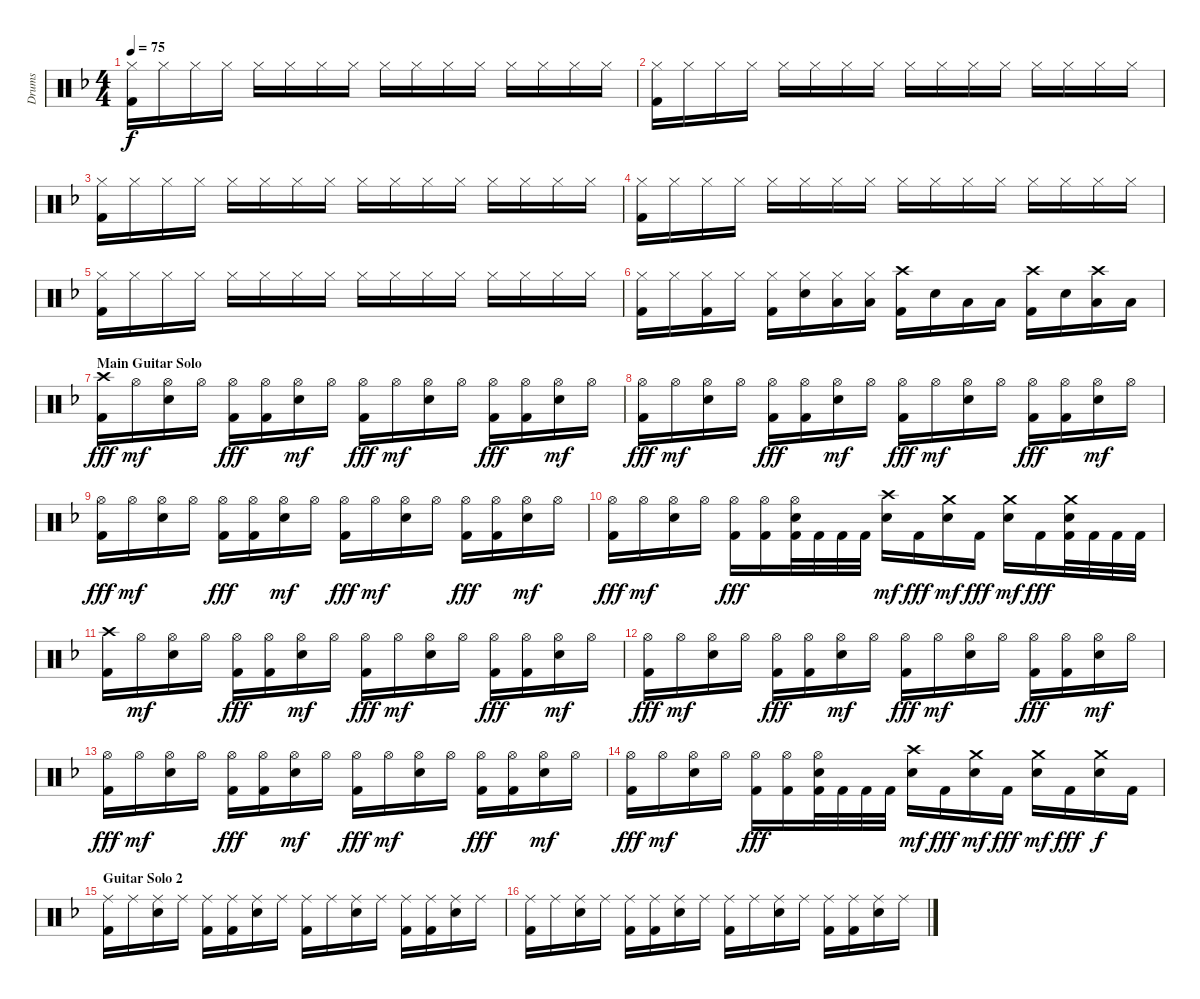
\track ("Drums" "Drums") {instrument percussion}
\staff {score}
\articulation defaults
\ts (4 4)
\tempo 75
\clef neutral
\ks dminor
("Hi-Hat (closed)" "Kick (hit) 2").16{dy f} "Hi-Hat (closed)".16 "Hi-Hat (closed)".16 "Hi-Hat (closed)".16 "Hi-Hat (closed)".16 "Hi-Hat (closed)".16 "Hi-Hat (closed)".16 "Hi-Hat (closed)".16 "Hi-Hat (closed)".16 "Hi-Hat (closed)".16 "Hi-Hat (closed)".16 "Hi-Hat (closed)".16 "Hi-Hat (closed)".16 "Hi-Hat (closed)".16 "Hi-Hat (closed)".16 "Hi-Hat (closed)".16 |
("Hi-Hat (closed)" "Kick (hit) 2").16 "Hi-Hat (closed)".16 "Hi-Hat (closed)".16 "Hi-Hat (closed)".16 "Hi-Hat (closed)".16 "Hi-Hat (closed)".16 "Hi-Hat (closed)".16 "Hi-Hat (closed)".16 "Hi-Hat (closed)".16 "Hi-Hat (closed)".16 "Hi-Hat (closed)".16 "Hi-Hat (closed)".16 "Hi-Hat (closed)".16 "Hi-Hat (closed)".16 "Hi-Hat (closed)".16 "Hi-Hat (closed)".16 |
("Hi-Hat (closed)" "Kick (hit) 2").16 "Hi-Hat (closed)".16 "Hi-Hat (closed)".16 "Hi-Hat (closed)".16 "Hi-Hat (closed)".16 "Hi-Hat (closed)".16 "Hi-Hat (closed)".16 "Hi-Hat (closed)".16 "Hi-Hat (closed)".16 "Hi-Hat (closed)".16 "Hi-Hat (closed)".16 "Hi-Hat (closed)".16 "Hi-Hat (closed)".16 "Hi-Hat (closed)".16 "Hi-Hat (closed)".16 "Hi-Hat (closed)".16 |
("Hi-Hat (closed)" "Kick (hit) 2").16 "Hi-Hat (closed)".16 "Hi-Hat (closed)".16 "Hi-Hat (closed)".16 "Hi-Hat (closed)".16 "Hi-Hat (closed)".16 "Hi-Hat (closed)".16 "Hi-Hat (closed)".16 "Hi-Hat (closed)".16 "Hi-Hat (closed)".16 "Hi-Hat (closed)".16 "Hi-Hat (closed)".16 "Hi-Hat (closed)".16 "Hi-Hat (closed)".16 "Hi-Hat (closed)".16 "Hi-Hat (closed)".16 |
("Hi-Hat (closed)" "Kick (hit) 2").16 "Hi-Hat (closed)".16 "Hi-Hat (closed)".16 "Hi-Hat (closed)".16 "Hi-Hat (closed)".16 "Hi-Hat (closed)".16 "Hi-Hat (closed)".16 "Hi-Hat (closed)".16 "Hi-Hat (closed)".16 "Hi-Hat (closed)".16 "Hi-Hat (closed)".16 "Hi-Hat (closed)".16 "Hi-Hat (closed)".16 "Hi-Hat (closed)".16 "Hi-Hat (closed)".16 "Hi-Hat (closed)".16 |
("Hi-Hat (closed)" "Kick (hit) 2").16 "Hi-Hat (closed)".16 ("Hi-Hat (closed)" "Kick (hit) 2").16 "Hi-Hat (closed)".16 ("Hi-Hat (closed)" "Kick (hit) 2").16 ("Hi-Hat (closed)" "Snare (hit) 2").16 ("Hi-Hat (closed)" "Low Tom (hit)").16 ("Hi-Hat (closed)" "Low Tom (hit)").16 ("Crash high (hit)" "Kick (hit) 2").16 "Snare (hit) 2".16 "Low Tom (hit)".16 "Low Tom (hit)".16 ("Crash high (hit)" "Kick (hit) 2").16 "Snare (hit) 2".16 ("Crash high (hit)" "Low Floor Tom (hit)").16 "Low Floor Tom (hit)".16 |
\section ("" "Main Guitar Solo")
("Crash high (hit)" "Kick (hit) 2").16{dy fff} "Hi-Hat (open)".16{dy mf} ("Hi-Hat (open)" "Snare (hit) 2").16 "Hi-Hat (open)".16 ("Hi-Hat (open)" "Kick (hit) 2").16{dy fff} ("Hi-Hat (open)" "Kick (hit) 2").16 ("Hi-Hat (open)" "Snare (hit) 2").16{dy mf} "Hi-Hat (open)".16 ("Hi-Hat (open)" "Kick (hit) 2").16{dy fff} "Hi-Hat (open)".16{dy mf} ("Hi-Hat (open)" "Snare (hit) 2").16 "Hi-Hat (open)".16 ("Hi-Hat (open)" "Kick (hit) 2").16{dy fff} ("Hi-Hat (open)" "Kick (hit) 2").16 ("Hi-Hat (open)" "Snare (hit) 2").16{dy mf} "Hi-Hat (open)".16 |
("Hi-Hat (open)" "Kick (hit) 2").16{dy fff} "Hi-Hat (open)".16{dy mf} ("Hi-Hat (open)" "Snare (hit) 2").16 "Hi-Hat (open)".16 ("Hi-Hat (open)" "Kick (hit) 2").16{dy fff} ("Hi-Hat (open)" "Kick (hit) 2").16 ("Hi-Hat (open)" "Snare (hit) 2").16{dy mf} "Hi-Hat (open)".16 ("Hi-Hat (open)" "Kick (hit) 2").16{dy fff} "Hi-Hat (open)".16{dy mf} ("Hi-Hat (open)" "Snare (hit) 2").16 "Hi-Hat (open)".16 ("Hi-Hat (open)" "Kick (hit) 2").16{dy fff} ("Hi-Hat (open)" "Kick (hit) 2").16 ("Hi-Hat (open)" "Snare (hit) 2").16{dy mf} "Hi-Hat (open)".16 |
("Hi-Hat (open)" "Kick (hit) 2").16{dy fff} "Hi-Hat (open)".16{dy mf} ("Hi-Hat (open)" "Snare (hit) 2").16 "Hi-Hat (open)".16 ("Hi-Hat (open)" "Kick (hit) 2").16{dy fff} ("Hi-Hat (open)" "Kick (hit) 2").16 ("Hi-Hat (open)" "Snare (hit) 2").16{dy mf} "Hi-Hat (open)".16 ("Hi-Hat (open)" "Kick (hit) 2").16{dy fff} "Hi-Hat (open)".16{dy mf} ("Hi-Hat (open)" "Snare (hit) 2").16 "Hi-Hat (open)".16 ("Hi-Hat (open)" "Kick (hit) 2").16{dy fff} ("Hi-Hat (open)" "Kick (hit) 2").16 ("Hi-Hat (open)" "Snare (hit) 2").16{dy mf} "Hi-Hat (open)".16 |
("Hi-Hat (open)" "Kick (hit) 2").16{dy fff} "Hi-Hat (open)".16{dy mf} ("Hi-Hat (open)" "Snare (hit) 2").16 "Hi-Hat (open)".16 ("Hi-Hat (open)" "Kick (hit) 2").16{dy fff} ("Hi-Hat (open)" "Kick (hit) 2").16 ("Hi-Hat (open)" "Snare (hit) 2" "Kick (hit) 2").32 "Kick (hit) 2".32 "Kick (hit) 2".32 "Kick (hit) 2".32 ("Crash high (hit)" "Snare (hit) 2").16{dy mf} "Kick (hit) 2".16{dy fff} ("Crash medium (hit)" "Snare (hit) 2").16{dy mf} "Kick (hit) 2".16{dy fff} ("Crash medium (hit)" "Snare (hit) 2").16{dy mf} "Kick (hit) 2".16{dy fff} ("Crash medium (hit)" "Snare (hit) 2" "Kick (hit) 2").32 "Kick (hit) 2".32 "Kick (hit) 2".32 "Kick (hit) 2".32 |
("Crash high (hit)" "Kick (hit) 2").16 "Hi-Hat (open)".16{dy mf} ("Hi-Hat (open)" "Snare (hit) 2").16 "Hi-Hat (open)".16 ("Hi-Hat (open)" "Kick (hit) 2").16{dy fff} ("Hi-Hat (open)" "Kick (hit) 2").16 ("Hi-Hat (open)" "Snare (hit) 2").16{dy mf} "Hi-Hat (open)".16 ("Hi-Hat (open)" "Kick (hit) 2").16{dy fff} "Hi-Hat (open)".16{dy mf} ("Hi-Hat (open)" "Snare (hit) 2").16 "Hi-Hat (open)".16 ("Hi-Hat (open)" "Kick (hit) 2").16{dy fff} ("Hi-Hat (open)" "Kick (hit) 2").16 ("Hi-Hat (open)" "Snare (hit) 2").16{dy mf} "Hi-Hat (open)".16 |
("Hi-Hat (open)" "Kick (hit) 2").16{dy fff} "Hi-Hat (open)".16{dy mf} ("Hi-Hat (open)" "Snare (hit) 2").16 "Hi-Hat (open)".16 ("Hi-Hat (open)" "Kick (hit) 2").16{dy fff} ("Hi-Hat (open)" "Kick (hit) 2").16 ("Hi-Hat (open)" "Snare (hit) 2").16{dy mf} "Hi-Hat (open)".16 ("Hi-Hat (open)" "Kick (hit) 2").16{dy fff} "Hi-Hat (open)".16{dy mf} ("Hi-Hat (open)" "Snare (hit) 2").16 "Hi-Hat (open)".16 ("Hi-Hat (open)" "Kick (hit) 2").16{dy fff} ("Hi-Hat (open)" "Kick (hit) 2").16 ("Hi-Hat (open)" "Snare (hit) 2").16{dy mf} "Hi-Hat (open)".16 |
("Hi-Hat (open)" "Kick (hit) 2").16{dy fff} "Hi-Hat (open)".16{dy mf} ("Hi-Hat (open)" "Snare (hit) 2").16 "Hi-Hat (open)".16 ("Hi-Hat (open)" "Kick (hit) 2").16{dy fff} ("Hi-Hat (open)" "Kick (hit) 2").16 ("Hi-Hat (open)" "Snare (hit) 2").16{dy mf} "Hi-Hat (open)".16 ("Hi-Hat (open)" "Kick (hit) 2").16{dy fff} "Hi-Hat (open)".16{dy mf} ("Hi-Hat (open)" "Snare (hit) 2").16 "Hi-Hat (open)".16 ("Hi-Hat (open)" "Kick (hit) 2").16{dy fff} ("Hi-Hat (open)" "Kick (hit) 2").16 ("Hi-Hat (open)" "Snare (hit) 2").16{dy mf} "Hi-Hat (open)".16 |
("Hi-Hat (open)" "Kick (hit) 2").16{dy fff} "Hi-Hat (open)".16{dy mf} ("Hi-Hat (open)" "Snare (hit) 2").16 "Hi-Hat (open)".16 ("Hi-Hat (open)" "Kick (hit) 2").16{dy fff} ("Hi-Hat (open)" "Kick (hit) 2").16 ("Hi-Hat (open)" "Snare (hit) 2" "Kick (hit) 2").32 "Kick (hit) 2".32 "Kick (hit) 2".32 "Kick (hit) 2".32 ("Crash high (hit)" "Snare (hit) 2").16{dy mf} "Kick (hit) 2".16{dy fff} ("Crash medium (hit)" "Snare (hit) 2").16{dy mf} "Kick (hit) 2".16{dy fff} ("Crash medium (hit)" "Snare (hit) 2").16{dy mf} "Kick (hit) 2".16{dy fff} ("Crash medium (hit)" "Snare (hit) 2").16{dy f} "Kick (hit) 2".16 |
\section ("" "Guitar Solo 2")
("Ride (middle)" "Kick (hit) 2").16 "Ride (middle)".16 ("Ride (middle)" "Snare (hit) 2").16 "Ride (middle)".16 ("Ride (middle)" "Kick (hit) 2").16 ("Ride (middle)" "Kick (hit) 2").16 ("Ride (middle)" "Snare (hit) 2").16 "Ride (middle)".16 ("Ride (middle)" "Kick (hit) 2").16 "Ride (middle)".16 ("Ride (middle)" "Snare (hit) 2").16 "Ride (middle)".16 ("Ride (middle)" "Kick (hit) 2").16 ("Ride (middle)" "Kick (hit) 2").16 ("Ride (middle)" "Snare (hit) 2").16 "Ride (middle)".16 |
("Ride (middle)" "Kick (hit) 2").16 "Ride (middle)".16 ("Ride (middle)" "Snare (hit) 2").16 "Ride (middle)".16 ("Ride (middle)" "Kick (hit) 2").16 ("Ride (middle)" "Kick (hit) 2").16 ("Ride (middle)" "Snare (hit) 2").16 "Ride (middle)".16 ("Ride (middle)" "Kick (hit) 2").16 "Ride (middle)".16 ("Ride (middle)" "Snare (hit) 2").16 "Ride (middle)".16 ("Ride (middle)" "Kick (hit) 2").16 ("Ride (middle)" "Kick (hit) 2").16 ("Ride (middle)" "Snare (hit) 2").16 "Ride (middle)".16
